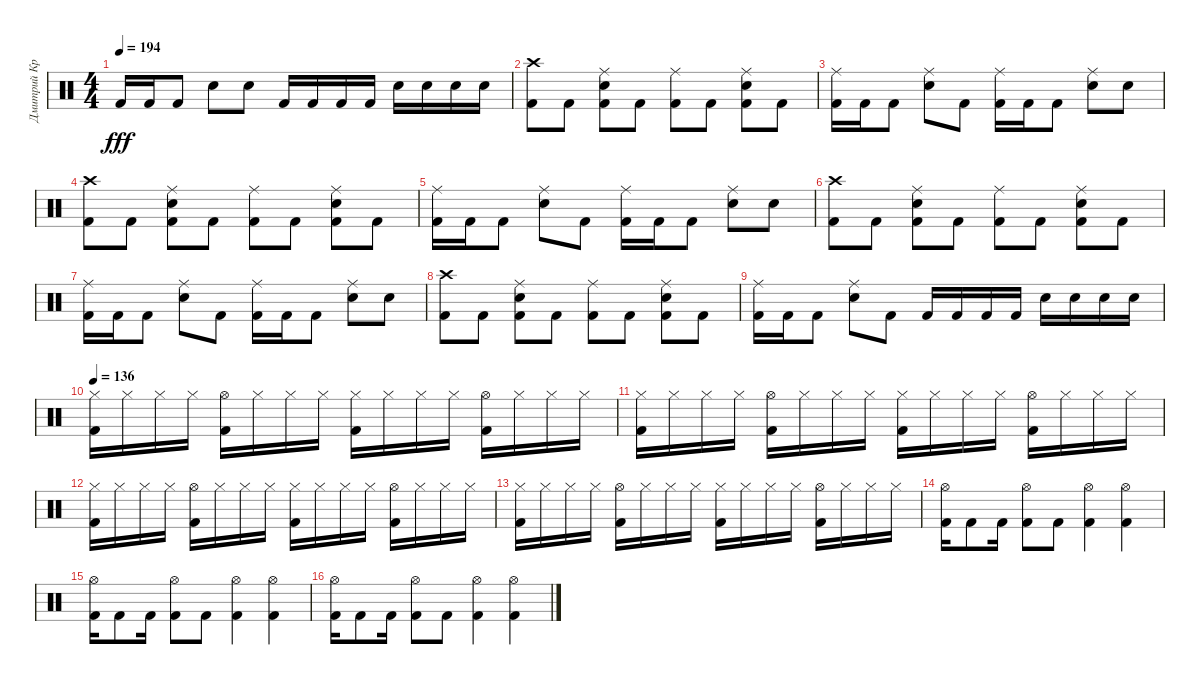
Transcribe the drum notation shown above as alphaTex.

\track ("Дмитрий Кривенков" "Дмитрий Кр") {instrument percussion}
\staff {score}
\articulation defaults
\ts (4 4)
\tempo 194
\clef neutral
\ks c "Kick (hit) 2".16{dy fff} "Kick (hit) 2".16 "Kick (hit) 2".8 "Electric Snare (hit)".8 "Electric Snare (hit)".8 "Kick (hit) 2".16 "Kick (hit) 2".16 "Kick (hit) 2".16 "Kick (hit) 2".16 "Electric Snare (hit)".16 "Electric Snare (hit)".16 "Electric Snare (hit)".16 "Electric Snare (hit)".16
|
("Crash high (hit)" "Kick (hit) 2").8 "Kick (hit) 2".8 ("Ride (middle)" "Kick (hit) 2" "Electric Snare (hit)").8 "Kick (hit) 2".8 ("Ride (middle)" "Kick (hit) 2").8 "Kick (hit) 2".8 ("Ride (middle)" "Kick (hit) 2" "Electric Snare (hit)").8 "Kick (hit) 2".8 |
("Ride (middle)" "Kick (hit) 2").16 "Kick (hit) 2".16 "Kick (hit) 2".8 ("Ride (middle)" "Electric Snare (hit)").8 "Kick (hit) 2".8 ("Kick (hit) 2" "Ride (middle)").16 "Kick (hit) 2".16 "Kick (hit) 2".8 ("Electric Snare (hit)" "Ride (middle)").8 "Electric Snare (hit)".8 |
("Crash high (hit)" "Kick (hit) 2").8 "Kick (hit) 2".8 ("Ride (middle)" "Kick (hit) 2" "Electric Snare (hit)").8 "Kick (hit) 2".8 ("Ride (middle)" "Kick (hit) 2").8 "Kick (hit) 2".8 ("Ride (middle)" "Kick (hit) 2" "Electric Snare (hit)").8 "Kick (hit) 2".8 |
("Ride (middle)" "Kick (hit) 2").16 "Kick (hit) 2".16 "Kick (hit) 2".8 ("Ride (middle)" "Electric Snare (hit)").8 "Kick (hit) 2".8 ("Kick (hit) 2" "Ride (middle)").16 "Kick (hit) 2".16 "Kick (hit) 2".8 ("Electric Snare (hit)" "Ride (middle)").8 "Electric Snare (hit)".8 |
("Crash high (hit)" "Kick (hit) 2").8 "Kick (hit) 2".8 ("Ride (middle)" "Kick (hit) 2" "Electric Snare (hit)").8 "Kick (hit) 2".8 ("Ride (middle)" "Kick (hit) 2").8 "Kick (hit) 2".8 ("Ride (middle)" "Kick (hit) 2" "Electric Snare (hit)").8 "Kick (hit) 2".8 |
("Ride (middle)" "Kick (hit) 2").16 "Kick (hit) 2".16 "Kick (hit) 2".8 ("Ride (middle)" "Electric Snare (hit)").8 "Kick (hit) 2".8 ("Kick (hit) 2" "Ride (middle)").16 "Kick (hit) 2".16 "Kick (hit) 2".8 ("Electric Snare (hit)" "Ride (middle)").8 "Electric Snare (hit)".8 |
("Crash high (hit)" "Kick (hit) 2").8 "Kick (hit) 2".8 ("Ride (middle)" "Kick (hit) 2" "Electric Snare (hit)").8 "Kick (hit) 2".8 ("Ride (middle)" "Kick (hit) 2").8 "Kick (hit) 2".8 ("Ride (middle)" "Kick (hit) 2" "Electric Snare (hit)").8 "Kick (hit) 2".8 |
("Ride (middle)" "Kick (hit) 2").16 "Kick (hit) 2".16 "Kick (hit) 2".8 ("Ride (middle)" "Electric Snare (hit)").8 "Kick (hit) 2".8 "Kick (hit) 2".16 "Kick (hit) 2".16 "Kick (hit) 2".16 "Kick (hit) 2".16 "Electric Snare (hit)".16 "Electric Snare (hit)".16 "Electric Snare (hit)".16 "Electric Snare (hit)".16 |
\tempo 136
("Hi-Hat (closed)" "Kick (hit) 2").16{volume 11} "Hi-Hat (closed)".16 "Hi-Hat (closed)".16 "Hi-Hat (closed)".16 ("Hi-Hat (open)" "Kick (hit) 2").16 "Hi-Hat (closed)".16 "Hi-Hat (closed)".16 "Hi-Hat (closed)".16 ("Hi-Hat (closed)" "Kick (hit) 2").16 "Hi-Hat (closed)".16 "Hi-Hat (closed)".16 "Hi-Hat (closed)".16 ("Hi-Hat (open)" "Kick (hit) 2").16 "Hi-Hat (closed)".16 "Hi-Hat (closed)".16 "Hi-Hat (closed)".16 |
("Hi-Hat (closed)" "Kick (hit) 2").16 "Hi-Hat (closed)".16 "Hi-Hat (closed)".16 "Hi-Hat (closed)".16 ("Hi-Hat (open)" "Kick (hit) 2").16 "Hi-Hat (closed)".16 "Hi-Hat (closed)".16 "Hi-Hat (closed)".16 ("Hi-Hat (closed)" "Kick (hit) 2").16 "Hi-Hat (closed)".16 "Hi-Hat (closed)".16 "Hi-Hat (closed)".16 ("Hi-Hat (open)" "Kick (hit) 2").16 "Hi-Hat (closed)".16 "Hi-Hat (closed)".16 "Hi-Hat (closed)".16 |
("Hi-Hat (closed)" "Kick (hit) 2").16 "Hi-Hat (closed)".16 "Hi-Hat (closed)".16 "Hi-Hat (closed)".16 ("Hi-Hat (open)" "Kick (hit) 2").16 "Hi-Hat (closed)".16 "Hi-Hat (closed)".16 "Hi-Hat (closed)".16 ("Hi-Hat (closed)" "Kick (hit) 2").16 "Hi-Hat (closed)".16 "Hi-Hat (closed)".16 "Hi-Hat (closed)".16 ("Hi-Hat (open)" "Kick (hit) 2").16 "Hi-Hat (closed)".16 "Hi-Hat (closed)".16 "Hi-Hat (closed)".16 |
("Hi-Hat (closed)" "Kick (hit) 2").16 "Hi-Hat (closed)".16 "Hi-Hat (closed)".16 "Hi-Hat (closed)".16 ("Hi-Hat (open)" "Kick (hit) 2").16 "Hi-Hat (closed)".16 "Hi-Hat (closed)".16 "Hi-Hat (closed)".16 ("Hi-Hat (closed)" "Kick (hit) 2").16 "Hi-Hat (closed)".16 "Hi-Hat (closed)".16 "Hi-Hat (closed)".16 ("Hi-Hat (open)" "Kick (hit) 2").16 "Hi-Hat (closed)".16 "Hi-Hat (closed)".16 "Hi-Hat (closed)".16 |
("Hi-Hat (open)" "Kick (hit) 2").16 "Kick (hit) 2".8 "Kick (hit) 2".16 ("Hi-Hat (open)" "Kick (hit) 2").8 "Kick (hit) 2".8 ("Hi-Hat (open)" "Kick (hit) 2").4 ("Hi-Hat (open)" "Kick (hit) 2").4 |
("Hi-Hat (open)" "Kick (hit) 2").16 "Kick (hit) 2".8 "Kick (hit) 2".16 ("Hi-Hat (open)" "Kick (hit) 2").8 "Kick (hit) 2".8 ("Hi-Hat (open)" "Kick (hit) 2").4 ("Hi-Hat (open)" "Kick (hit) 2").4 |
("Hi-Hat (open)" "Kick (hit) 2").16 "Kick (hit) 2".8 "Kick (hit) 2".16 ("Hi-Hat (open)" "Kick (hit) 2").8 "Kick (hit) 2".8 ("Hi-Hat (open)" "Kick (hit) 2").4 ("Hi-Hat (open)" "Kick (hit) 2").4
